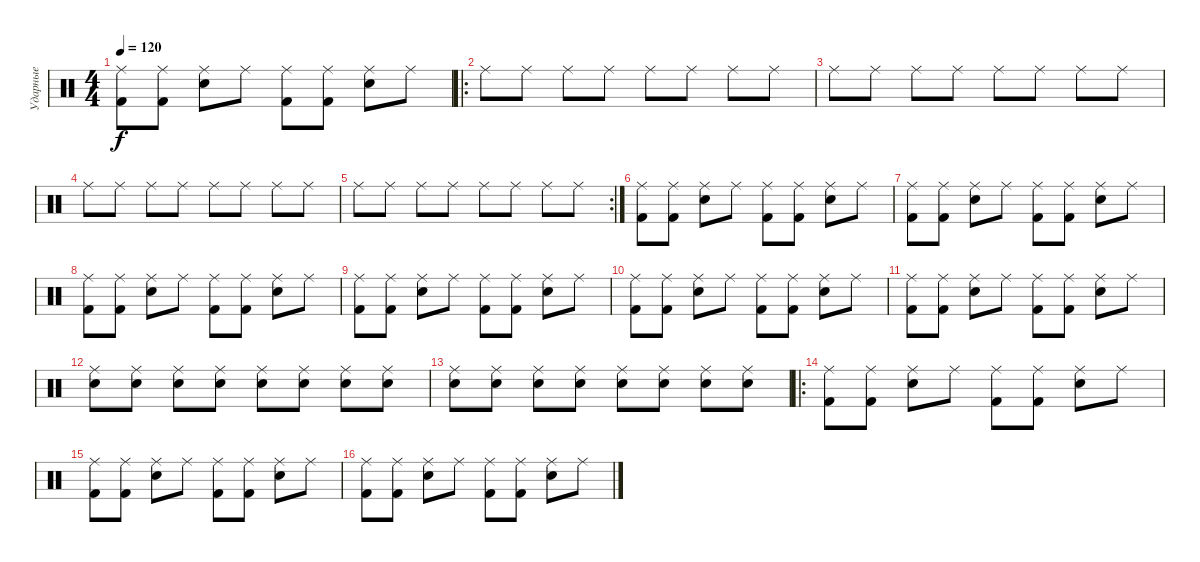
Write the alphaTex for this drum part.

\track ("Ударные" "Ударные") {instrument percussion}
\staff {score}
\articulation defaults
\ts (4 4)
\tempo 120
\clef neutral
\ks c
("Ride (middle)" "Kick (hit) 2").8{dy f} ("Ride (middle)" "Kick (hit) 2").8 ("Ride (middle)" "Snare (hit) 2").8 "Ride (middle)".8 ("Ride (middle)" "Kick (hit) 2").8 ("Ride (middle)" "Kick (hit) 2").8 ("Ride (middle)" "Snare (hit) 2").8 "Ride (middle)".8 |
\ro "Ride (middle)".8 "Ride (middle)".8 "Ride (middle)".8 "Ride (middle)".8 "Ride (middle)".8 "Ride (middle)".8 "Ride (middle)".8 "Ride (middle)".8
|
"Ride (middle)".8 "Ride (middle)".8 "Ride (middle)".8 "Ride (middle)".8 "Ride (middle)".8 "Ride (middle)".8 "Ride (middle)".8 "Ride (middle)".8 |
"Ride (middle)".8 "Ride (middle)".8 "Ride (middle)".8 "Ride (middle)".8 "Ride (middle)".8 "Ride (middle)".8 "Ride (middle)".8 "Ride (middle)".8 |
\rc 2 "Ride (middle)".8 "Ride (middle)".8 "Ride (middle)".8 "Ride (middle)".8 "Ride (middle)".8 "Ride (middle)".8 "Ride (middle)".8 "Ride (middle)".8
|
("Ride (middle)" "Kick (hit) 2").8 ("Ride (middle)" "Kick (hit) 2").8 ("Ride (middle)" "Snare (hit) 2").8 "Ride (middle)".8 ("Ride (middle)" "Kick (hit) 2").8 ("Ride (middle)" "Kick (hit) 2").8 ("Ride (middle)" "Snare (hit) 2").8 "Ride (middle)".8 |
("Ride (middle)" "Kick (hit) 2").8 ("Ride (middle)" "Kick (hit) 2").8 ("Ride (middle)" "Snare (hit) 2").8 "Ride (middle)".8 ("Ride (middle)" "Kick (hit) 2").8 ("Ride (middle)" "Kick (hit) 2").8 ("Ride (middle)" "Snare (hit) 2").8 "Ride (middle)".8 |
("Ride (middle)" "Kick (hit) 2").8 ("Ride (middle)" "Kick (hit) 2").8 ("Ride (middle)" "Snare (hit) 2").8 "Ride (middle)".8 ("Ride (middle)" "Kick (hit) 2").8 ("Ride (middle)" "Kick (hit) 2").8 ("Ride (middle)" "Snare (hit) 2").8 "Ride (middle)".8 |
("Ride (middle)" "Kick (hit) 2").8 ("Ride (middle)" "Kick (hit) 2").8 ("Ride (middle)" "Snare (hit) 2").8 "Ride (middle)".8 ("Ride (middle)" "Kick (hit) 2").8 ("Ride (middle)" "Kick (hit) 2").8 ("Ride (middle)" "Snare (hit) 2").8 "Ride (middle)".8 |
("Ride (middle)" "Kick (hit) 2").8 ("Ride (middle)" "Kick (hit) 2").8 ("Ride (middle)" "Snare (hit) 2").8 "Ride (middle)".8 ("Ride (middle)" "Kick (hit) 2").8 ("Ride (middle)" "Kick (hit) 2").8 ("Ride (middle)" "Snare (hit) 2").8 "Ride (middle)".8 |
("Ride (middle)" "Kick (hit) 2").8 ("Ride (middle)" "Kick (hit) 2").8 ("Ride (middle)" "Snare (hit) 2").8 "Ride (middle)".8 ("Ride (middle)" "Kick (hit) 2").8 ("Ride (middle)" "Kick (hit) 2").8 ("Ride (middle)" "Snare (hit) 2").8 "Ride (middle)".8 |
("Ride (middle)" "Snare (hit) 2").8 ("Ride (middle)" "Snare (hit) 2").8 ("Ride (middle)" "Snare (hit) 2").8 ("Ride (middle)" "Snare (hit) 2").8 ("Ride (middle)" "Snare (hit) 2").8 ("Ride (middle)" "Snare (hit) 2").8 ("Ride (middle)" "Snare (hit) 2").8 ("Ride (middle)" "Snare (hit) 2").8 |
("Ride (middle)" "Snare (hit) 2").8 ("Ride (middle)" "Snare (hit) 2").8 ("Ride (middle)" "Snare (hit) 2").8 ("Ride (middle)" "Snare (hit) 2").8 ("Ride (middle)" "Snare (hit) 2").8 ("Ride (middle)" "Snare (hit) 2").8 ("Ride (middle)" "Snare (hit) 2").8 ("Ride (middle)" "Snare (hit) 2").8 |
\ro
("Ride (middle)" "Kick (hit) 2").8 ("Ride (middle)" "Kick (hit) 2").8 ("Ride (middle)" "Snare (hit) 2").8 "Ride (middle)".8 ("Ride (middle)" "Kick (hit) 2").8 ("Ride (middle)" "Kick (hit) 2").8 ("Ride (middle)" "Snare (hit) 2").8 "Ride (middle)".8 |
("Ride (middle)" "Kick (hit) 2").8 ("Ride (middle)" "Kick (hit) 2").8 ("Ride (middle)" "Snare (hit) 2").8 "Ride (middle)".8 ("Ride (middle)" "Kick (hit) 2").8 ("Ride (middle)" "Kick (hit) 2").8 ("Ride (middle)" "Snare (hit) 2").8 "Ride (middle)".8 |
("Ride (middle)" "Kick (hit) 2").8 ("Ride (middle)" "Kick (hit) 2").8 ("Ride (middle)" "Snare (hit) 2").8 "Ride (middle)".8 ("Ride (middle)" "Kick (hit) 2").8 ("Ride (middle)" "Kick (hit) 2").8 ("Ride (middle)" "Snare (hit) 2").8 "Ride (middle)".8
